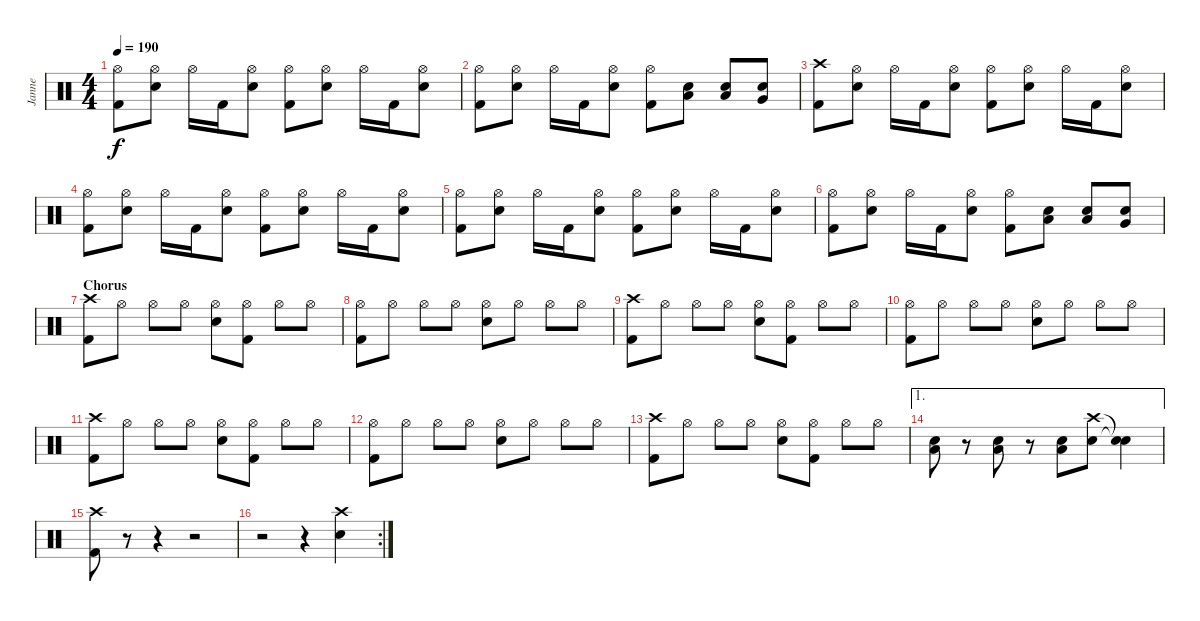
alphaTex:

\track ("Janne" "Janne") {instrument percussion}
\staff {score}
\articulation defaults
\ts (4 4)
\tempo 190
\clef neutral
\ks c
("Hi-Hat (open)" "Kick (hit) 2").8{dy f} ("Hi-Hat (open)" "Electric Snare (hit)").8 "Hi-Hat (open)".16 "Kick (hit) 2".16 ("Hi-Hat (open)" "Electric Snare (hit)").8 ("Hi-Hat (open)" "Kick (hit) 2").8 ("Hi-Hat (open)" "Electric Snare (hit)").8 "Hi-Hat (open)".16 "Kick (hit) 2".16 ("Hi-Hat (open)" "Electric Snare (hit)").8 |
("Hi-Hat (open)" "Kick (hit) 2").8 ("Hi-Hat (open)" "Electric Snare (hit)").8 "Hi-Hat (open)".16 "Kick (hit) 2".16 ("Hi-Hat (open)" "Electric Snare (hit)").8 ("Hi-Hat (open)" "Kick (hit) 2").8 ("Low Tom (hit)" "Electric Snare (hit)").8 ("Low Tom (hit)" "Electric Snare (hit)").8 ("Very Low Tom (hit)" "Electric Snare (hit)").8 |
("Crash high (hit)" "Kick (hit) 2").8 ("Hi-Hat (open)" "Electric Snare (hit)").8 "Hi-Hat (open)".16 "Kick (hit) 2".16 ("Hi-Hat (open)" "Electric Snare (hit)").8 ("Hi-Hat (open)" "Kick (hit) 2").8 ("Hi-Hat (open)" "Electric Snare (hit)").8 "Hi-Hat (open)".16 "Kick (hit) 2".16 ("Hi-Hat (open)" "Electric Snare (hit)").8 |
("Hi-Hat (open)" "Kick (hit) 2").8 ("Hi-Hat (open)" "Electric Snare (hit)").8 "Hi-Hat (open)".16 "Kick (hit) 2".16 ("Hi-Hat (open)" "Electric Snare (hit)").8 ("Hi-Hat (open)" "Kick (hit) 2").8 ("Hi-Hat (open)" "Electric Snare (hit)").8 "Hi-Hat (open)".16 "Kick (hit) 2".16 ("Hi-Hat (open)" "Electric Snare (hit)").8 |
("Hi-Hat (open)" "Kick (hit) 2").8 ("Hi-Hat (open)" "Electric Snare (hit)").8 "Hi-Hat (open)".16 "Kick (hit) 2".16 ("Hi-Hat (open)" "Electric Snare (hit)").8 ("Hi-Hat (open)" "Kick (hit) 2").8 ("Hi-Hat (open)" "Electric Snare (hit)").8 "Hi-Hat (open)".16 "Kick (hit) 2".16 ("Hi-Hat (open)" "Electric Snare (hit)").8 |
("Hi-Hat (open)" "Kick (hit) 2").8 ("Hi-Hat (open)" "Electric Snare (hit)").8 "Hi-Hat (open)".16 "Kick (hit) 2".16 ("Hi-Hat (open)" "Electric Snare (hit)").8 ("Hi-Hat (open)" "Kick (hit) 2").8 ("Low Tom (hit)" "Electric Snare (hit)").8 ("Low Tom (hit)" "Electric Snare (hit)").8 ("Very Low Tom (hit)" "Electric Snare (hit)").8 |
\section ("" "Chorus")
("Crash high (hit)" "Kick (hit) 2").8 "Hi-Hat (open)".8 "Hi-Hat (open)".8 "Hi-Hat (open)".8 ("Hi-Hat (open)" "Electric Snare (hit)").8 ("Hi-Hat (open)" "Kick (hit) 2").8 "Hi-Hat (open)".8 "Hi-Hat (open)".8 |
("Hi-Hat (open)" "Kick (hit) 2").8 "Hi-Hat (open)".8 "Hi-Hat (open)".8 "Hi-Hat (open)".8 ("Hi-Hat (open)" "Electric Snare (hit)").8 "Hi-Hat (open)".8 "Hi-Hat (open)".8 "Hi-Hat (open)".8 |
("Crash high (hit)" "Kick (hit) 2").8 "Hi-Hat (open)".8 "Hi-Hat (open)".8 "Hi-Hat (open)".8 ("Hi-Hat (open)" "Electric Snare (hit)").8 ("Hi-Hat (open)" "Kick (hit) 2").8 "Hi-Hat (open)".8 "Hi-Hat (open)".8 |
("Hi-Hat (open)" "Kick (hit) 2").8 "Hi-Hat (open)".8 "Hi-Hat (open)".8 "Hi-Hat (open)".8 ("Hi-Hat (open)" "Electric Snare (hit)").8 "Hi-Hat (open)".8 "Hi-Hat (open)".8 "Hi-Hat (open)".8 |
("Crash high (hit)" "Kick (hit) 2").8 "Hi-Hat (open)".8 "Hi-Hat (open)".8 "Hi-Hat (open)".8 ("Hi-Hat (open)" "Electric Snare (hit)").8 ("Hi-Hat (open)" "Kick (hit) 2").8 "Hi-Hat (open)".8 "Hi-Hat (open)".8 |
("Hi-Hat (open)" "Kick (hit) 2").8 "Hi-Hat (open)".8 "Hi-Hat (open)".8 "Hi-Hat (open)".8 ("Hi-Hat (open)" "Electric Snare (hit)").8 "Hi-Hat (open)".8 "Hi-Hat (open)".8 "Hi-Hat (open)".8 |
("Crash high (hit)" "Kick (hit) 2").8 "Hi-Hat (open)".8 "Hi-Hat (open)".8 "Hi-Hat (open)".8 ("Hi-Hat (open)" "Electric Snare (hit)").8 ("Hi-Hat (open)" "Kick (hit) 2").8 "Hi-Hat (open)".8 "Hi-Hat (open)".8 |
\ae 1
("Low Floor Tom (hit)" "Electric Snare (hit)").8 r.8 ("Low Floor Tom (hit)" "Electric Snare (hit)").8 r.8 ("Low Floor Tom (hit)" "Electric Snare (hit)").8 ("Crash high (hit)" "Electric Snare (hit)").8 ("Snare (hit)"{t} "Snare (hit)"{t}).4 |
("Crash high (hit)" "Kick (hit) 2").8 r.8 r.4 r.2 |
\rc 2
r.2 r.4 ("Crash high (hit)" "Electric Snare (hit)").4
